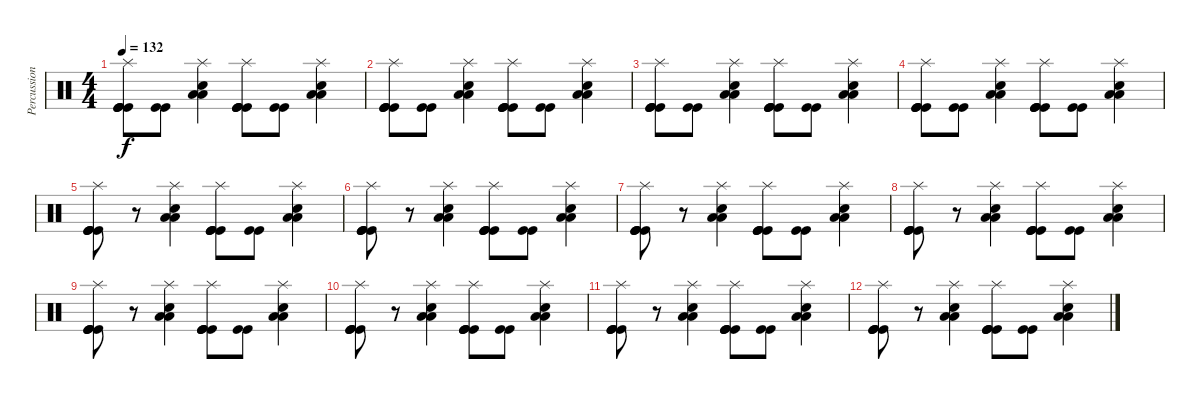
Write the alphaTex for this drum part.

\track ("Percussion" "Percussion") {instrument percussion}
\staff {score}
\articulation defaults
\ts (4 4)
\tempo 132
\clef neutral
\ks c
("Splash (hit)" "Kick (hit)" "Kick (hit)" "Kick (hit)" "Kick (hit)").8{dy f} ("Kick (hit)" "Kick (hit)").8 ("Splash (hit)" "Low Tom (hit)" "Low Tom (hit)" "Electric Snare (hit)").4 ("Splash (hit)" "Kick (hit)" "Kick (hit)" "Kick (hit)" "Kick (hit)").8 ("Kick (hit)" "Kick (hit)").8 ("Splash (hit)" "Low Tom (hit)" "Low Tom (hit)" "Electric Snare (hit)").4 |
("Splash (hit)" "Kick (hit)" "Kick (hit)" "Kick (hit)" "Kick (hit)").8 ("Kick (hit)" "Kick (hit)").8 ("Splash (hit)" "Low Tom (hit)" "Low Tom (hit)" "Electric Snare (hit)").4 ("Splash (hit)" "Kick (hit)" "Kick (hit)" "Kick (hit)" "Kick (hit)").8 ("Kick (hit)" "Kick (hit)").8 ("Splash (hit)" "Low Tom (hit)" "Low Tom (hit)" "Electric Snare (hit)").4 |
("Splash (hit)" "Kick (hit)" "Kick (hit)" "Kick (hit)" "Kick (hit)").8 ("Kick (hit)" "Kick (hit)").8 ("Splash (hit)" "Low Tom (hit)" "Low Tom (hit)" "Electric Snare (hit)").4 ("Splash (hit)" "Kick (hit)" "Kick (hit)" "Kick (hit)" "Kick (hit)").8 ("Kick (hit)" "Kick (hit)").8 ("Splash (hit)" "Low Tom (hit)" "Low Tom (hit)" "Electric Snare (hit)").4 |
("Splash (hit)" "Kick (hit)" "Kick (hit)" "Kick (hit)" "Kick (hit)").8 ("Kick (hit)" "Kick (hit)").8 ("Splash (hit)" "Low Tom (hit)" "Low Tom (hit)" "Electric Snare (hit)").4 ("Splash (hit)" "Kick (hit)" "Kick (hit)" "Kick (hit)" "Kick (hit)").8 ("Kick (hit)" "Kick (hit)").8 ("Splash (hit)" "Low Tom (hit)" "Low Tom (hit)" "Electric Snare (hit)").4 |
("Splash (hit)" "Kick (hit)" "Kick (hit)" "Kick (hit)" "Kick (hit)").8 r.8 ("Splash (hit)" "Low Tom (hit)" "Low Tom (hit)" "Electric Snare (hit)").4 ("Splash (hit)" "Kick (hit)" "Kick (hit)" "Kick (hit)" "Kick (hit)").8 ("Kick (hit)" "Kick (hit)").8 ("Splash (hit)" "Low Tom (hit)" "Low Tom (hit)" "Electric Snare (hit)").4 |
("Splash (hit)" "Kick (hit)" "Kick (hit)" "Kick (hit)" "Kick (hit)").8 r.8 ("Splash (hit)" "Low Tom (hit)" "Low Tom (hit)" "Electric Snare (hit)").4 ("Splash (hit)" "Kick (hit)" "Kick (hit)" "Kick (hit)" "Kick (hit)").8 ("Kick (hit)" "Kick (hit)").8 ("Splash (hit)" "Low Tom (hit)" "Low Tom (hit)" "Electric Snare (hit)").4 |
("Splash (hit)" "Kick (hit)" "Kick (hit)" "Kick (hit)" "Kick (hit)").8 r.8 ("Splash (hit)" "Low Tom (hit)" "Low Tom (hit)" "Electric Snare (hit)").4 ("Splash (hit)" "Kick (hit)" "Kick (hit)" "Kick (hit)" "Kick (hit)").8 ("Kick (hit)" "Kick (hit)").8 ("Splash (hit)" "Low Tom (hit)" "Low Tom (hit)" "Electric Snare (hit)").4 |
("Splash (hit)" "Kick (hit)" "Kick (hit)" "Kick (hit)" "Kick (hit)").8 r.8 ("Splash (hit)" "Low Tom (hit)" "Low Tom (hit)" "Electric Snare (hit)").4 ("Splash (hit)" "Kick (hit)" "Kick (hit)" "Kick (hit)" "Kick (hit)").8 ("Kick (hit)" "Kick (hit)").8 ("Splash (hit)" "Low Tom (hit)" "Low Tom (hit)" "Electric Snare (hit)").4 |
("Splash (hit)" "Kick (hit)" "Kick (hit)" "Kick (hit)" "Kick (hit)").8{volume 15} r.8 ("Splash (hit)" "Low Tom (hit)" "Low Tom (hit)" "Electric Snare (hit)").4{volume 14} ("Splash (hit)" "Kick (hit)" "Kick (hit)" "Kick (hit)" "Kick (hit)").8 ("Kick (hit)" "Kick (hit)").8{volume 13} ("Splash (hit)" "Low Tom (hit)" "Low Tom (hit)" "Electric Snare (hit)").4 |
("Splash (hit)" "Kick (hit)" "Kick (hit)" "Kick (hit)" "Kick (hit)").8{volume 12} r.8 ("Splash (hit)" "Low Tom (hit)" "Low Tom (hit)" "Electric Snare (hit)").4{volume 11} ("Splash (hit)" "Kick (hit)" "Kick (hit)" "Kick (hit)" "Kick (hit)").8 ("Kick (hit)" "Kick (hit)").8{volume 10} ("Splash (hit)" "Low Tom (hit)" "Low Tom (hit)" "Electric Snare (hit)").4{volume 9} |
("Splash (hit)" "Kick (hit)" "Kick (hit)" "Kick (hit)" "Kick (hit)").8{volume 8} r.8 ("Splash (hit)" "Low Tom (hit)" "Low Tom (hit)" "Electric Snare (hit)").4{volume 7} ("Splash (hit)" "Kick (hit)" "Kick (hit)" "Kick (hit)" "Kick (hit)").8{volume 6} ("Kick (hit)" "Kick (hit)").8{volume 5} ("Splash (hit)" "Low Tom (hit)" "Low Tom (hit)" "Electric Snare (hit)").4{volume 4} |
("Splash (hit)" "Kick (hit)" "Kick (hit)" "Kick (hit)" "Kick (hit)").8{volume 3} r.8 ("Splash (hit)" "Low Tom (hit)" "Low Tom (hit)" "Electric Snare (hit)").4{volume 2} ("Splash (hit)" "Kick (hit)" "Kick (hit)" "Kick (hit)" "Kick (hit)").8{volume 1} ("Kick (hit)" "Kick (hit)").8 ("Splash (hit)" "Low Tom (hit)" "Low Tom (hit)" "Electric Snare (hit)").4{volume 0}
